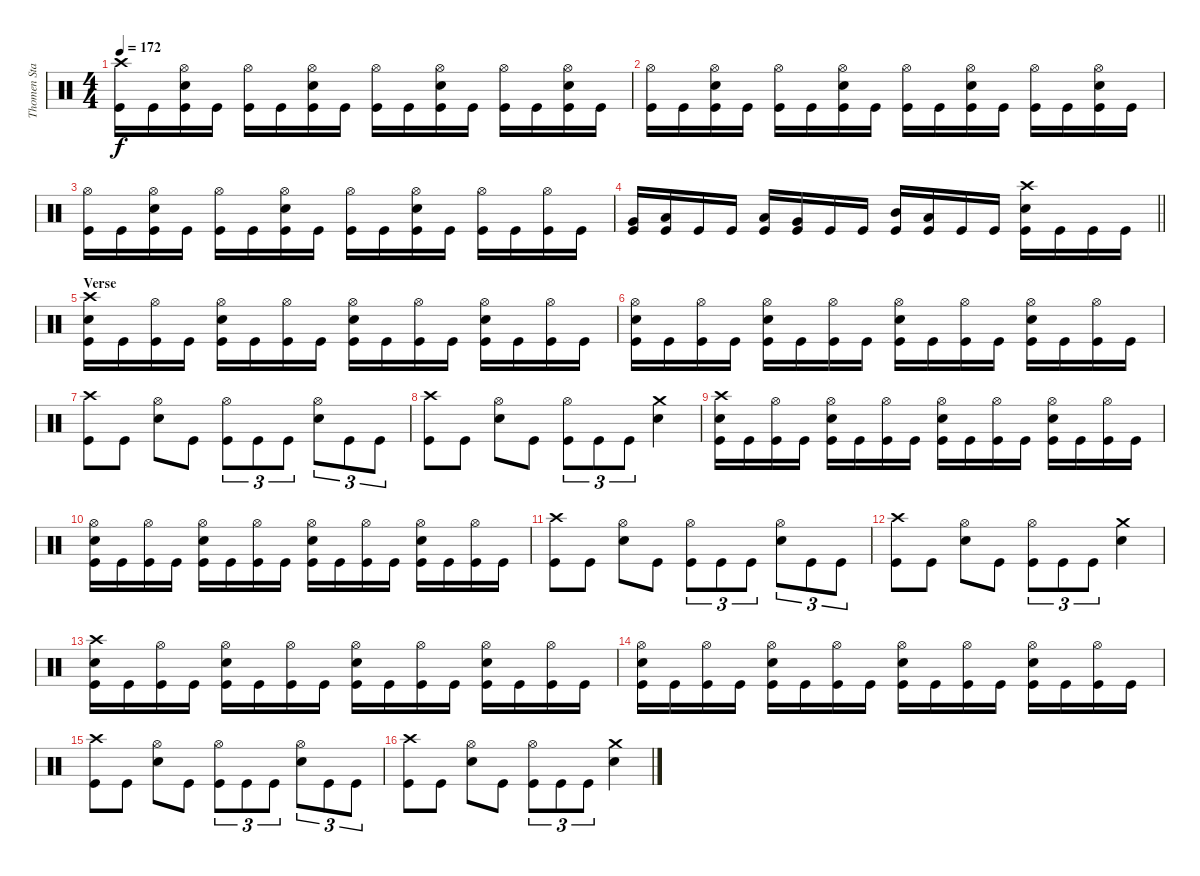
\track ("Thomen Stauch" "Thomen Sta") {instrument percussion}
\staff {score}
\articulation defaults
\ts (4 4)
\tempo 172
\clef neutral
\ks c
("Crash high (hit)" "Kick (hit)").16{dy f} "Kick (hit)".16 ("Hi-Hat (open)" "Snare (hit) 2" "Kick (hit)").16 "Kick (hit)".16 ("Hi-Hat (open)" "Kick (hit)").16 "Kick (hit)".16 ("Hi-Hat (open)" "Snare (hit) 2" "Kick (hit)").16 "Kick (hit)".16 ("Hi-Hat (open)" "Kick (hit)").16 "Kick (hit)".16 ("Hi-Hat (open)" "Snare (hit) 2" "Kick (hit)").16 "Kick (hit)".16 ("Hi-Hat (open)" "Kick (hit)").16 "Kick (hit)".16 ("Hi-Hat (open)" "Snare (hit) 2" "Kick (hit)").16 "Kick (hit)".16 |
("Hi-Hat (open)" "Kick (hit)").16 "Kick (hit)".16 ("Hi-Hat (open)" "Snare (hit) 2" "Kick (hit)").16 "Kick (hit)".16 ("Hi-Hat (open)" "Kick (hit)").16 "Kick (hit)".16 ("Hi-Hat (open)" "Snare (hit) 2" "Kick (hit)").16 "Kick (hit)".16 ("Hi-Hat (open)" "Kick (hit)").16 "Kick (hit)".16 ("Hi-Hat (open)" "Snare (hit) 2" "Kick (hit)").16 "Kick (hit)".16 ("Hi-Hat (open)" "Kick (hit)").16 "Kick (hit)".16 ("Hi-Hat (open)" "Snare (hit) 2" "Kick (hit)").16 "Kick (hit)".16 |
("Hi-Hat (open)" "Kick (hit)").16 "Kick (hit)".16 ("Hi-Hat (open)" "Snare (hit) 2" "Kick (hit)").16 "Kick (hit)".16 ("Hi-Hat (open)" "Kick (hit)").16 "Kick (hit)".16 ("Hi-Hat (open)" "Snare (hit) 2" "Kick (hit)").16 "Kick (hit)".16 ("Hi-Hat (open)" "Kick (hit)").16 "Kick (hit)".16 ("Hi-Hat (open)" "Snare (hit) 2" "Kick (hit)").16 "Kick (hit)".16 ("Hi-Hat (open)" "Kick (hit)").16 "Kick (hit)".16 ("Hi-Hat (open)" "Kick (hit)").16 "Kick (hit)".16 |
\barLineRight lightlight
("Very Low Tom (hit)" "Kick (hit)").16 ("Low Floor Tom (hit)" "Kick (hit)").16 "Kick (hit)".16 "Kick (hit)".16 ("Low Tom (hit)" "Kick (hit)").16 ("Very Low Tom (hit)" "Kick (hit)").16 "Kick (hit)".16 "Kick (hit)".16 ("Mid Tom (hit)" "Kick (hit)").16 ("Low Tom (hit)" "Kick (hit)").16 "Kick (hit)".16 "Kick (hit)".16 ("Crash high (hit)" "Snare (hit) 2" "Kick (hit)").16 "Kick (hit)".16 "Kick (hit)".16 "Kick (hit)".16 |
\section ("" "Verse")
("Crash high (hit)" "Snare (hit) 2" "Kick (hit)").16 "Kick (hit)".16 ("Hi-Hat (open)" "Kick (hit)").16 "Kick (hit)".16 ("Hi-Hat (open)" "Snare (hit) 2" "Kick (hit)").16 "Kick (hit)".16 ("Hi-Hat (open)" "Kick (hit)").16 "Kick (hit)".16 ("Hi-Hat (open)" "Snare (hit) 2" "Kick (hit)").16 "Kick (hit)".16 ("Hi-Hat (open)" "Kick (hit)").16 "Kick (hit)".16 ("Hi-Hat (open)" "Snare (hit) 2" "Kick (hit)").16 "Kick (hit)".16 ("Hi-Hat (open)" "Kick (hit)").16 "Kick (hit)".16 |
("Hi-Hat (open)" "Snare (hit) 2" "Kick (hit)").16 "Kick (hit)".16 ("Hi-Hat (open)" "Kick (hit)").16 "Kick (hit)".16 ("Hi-Hat (open)" "Snare (hit) 2" "Kick (hit)").16 "Kick (hit)".16 ("Hi-Hat (open)" "Kick (hit)").16 "Kick (hit)".16 ("Hi-Hat (open)" "Snare (hit) 2" "Kick (hit)").16 "Kick (hit)".16 ("Hi-Hat (open)" "Kick (hit)").16 "Kick (hit)".16 ("Hi-Hat (open)" "Snare (hit) 2" "Kick (hit)").16 "Kick (hit)".16 ("Hi-Hat (open)" "Kick (hit)").16 "Kick (hit)".16 |
("Crash high (hit)" "Kick (hit)").8 "Kick (hit)".8 ("Hi-Hat (open)" "Snare (hit) 2").8 "Kick (hit)".8 ("Hi-Hat (open)" "Kick (hit)").8{tu (3 2)} "Kick (hit)".8{tu (3 2)} "Kick (hit)".8{tu (3 2)} ("Hi-Hat (open)" "Snare (hit) 2").8{tu (3 2)} "Kick (hit)".8{tu (3 2)} "Kick (hit)".8{tu (3 2)} |
("Crash high (hit)" "Kick (hit)").8 "Kick (hit)".8 ("Hi-Hat (open)" "Snare (hit) 2").8 "Kick (hit)".8 ("Hi-Hat (open)" "Kick (hit)").8{tu (3 2)} "Kick (hit)".8{tu (3 2)} "Kick (hit)".8{tu (3 2)} ("Crash medium (hit)" "Snare (hit) 2").4 |
("Crash high (hit)" "Snare (hit) 2" "Kick (hit)").16 "Kick (hit)".16 ("Hi-Hat (open)" "Kick (hit)").16 "Kick (hit)".16 ("Hi-Hat (open)" "Snare (hit) 2" "Kick (hit)").16 "Kick (hit)".16 ("Hi-Hat (open)" "Kick (hit)").16 "Kick (hit)".16 ("Hi-Hat (open)" "Snare (hit) 2" "Kick (hit)").16 "Kick (hit)".16 ("Hi-Hat (open)" "Kick (hit)").16 "Kick (hit)".16 ("Hi-Hat (open)" "Snare (hit) 2" "Kick (hit)").16 "Kick (hit)".16 ("Hi-Hat (open)" "Kick (hit)").16 "Kick (hit)".16 |
("Hi-Hat (open)" "Snare (hit) 2" "Kick (hit)").16 "Kick (hit)".16 ("Hi-Hat (open)" "Kick (hit)").16 "Kick (hit)".16 ("Hi-Hat (open)" "Snare (hit) 2" "Kick (hit)").16 "Kick (hit)".16 ("Hi-Hat (open)" "Kick (hit)").16 "Kick (hit)".16 ("Hi-Hat (open)" "Snare (hit) 2" "Kick (hit)").16 "Kick (hit)".16 ("Hi-Hat (open)" "Kick (hit)").16 "Kick (hit)".16 ("Hi-Hat (open)" "Snare (hit) 2" "Kick (hit)").16 "Kick (hit)".16 ("Hi-Hat (open)" "Kick (hit)").16 "Kick (hit)".16 |
("Crash high (hit)" "Kick (hit)").8 "Kick (hit)".8 ("Hi-Hat (open)" "Snare (hit) 2").8 "Kick (hit)".8 ("Hi-Hat (open)" "Kick (hit)").8{tu (3 2)} "Kick (hit)".8{tu (3 2)} "Kick (hit)".8{tu (3 2)} ("Hi-Hat (open)" "Snare (hit) 2").8{tu (3 2)} "Kick (hit)".8{tu (3 2)} "Kick (hit)".8{tu (3 2)} |
("Crash high (hit)" "Kick (hit)").8 "Kick (hit)".8 ("Hi-Hat (open)" "Snare (hit) 2").8 "Kick (hit)".8 ("Hi-Hat (open)" "Kick (hit)").8{tu (3 2)} "Kick (hit)".8{tu (3 2)} "Kick (hit)".8{tu (3 2)} ("Crash medium (hit)" "Snare (hit) 2").4 |
("Crash high (hit)" "Snare (hit) 2" "Kick (hit)").16 "Kick (hit)".16 ("Hi-Hat (open)" "Kick (hit)").16 "Kick (hit)".16 ("Hi-Hat (open)" "Snare (hit) 2" "Kick (hit)").16 "Kick (hit)".16 ("Hi-Hat (open)" "Kick (hit)").16 "Kick (hit)".16 ("Hi-Hat (open)" "Snare (hit) 2" "Kick (hit)").16 "Kick (hit)".16 ("Hi-Hat (open)" "Kick (hit)").16 "Kick (hit)".16 ("Hi-Hat (open)" "Snare (hit) 2" "Kick (hit)").16 "Kick (hit)".16 ("Hi-Hat (open)" "Kick (hit)").16 "Kick (hit)".16 |
("Hi-Hat (open)" "Snare (hit) 2" "Kick (hit)").16 "Kick (hit)".16 ("Hi-Hat (open)" "Kick (hit)").16 "Kick (hit)".16 ("Hi-Hat (open)" "Snare (hit) 2" "Kick (hit)").16 "Kick (hit)".16 ("Hi-Hat (open)" "Kick (hit)").16 "Kick (hit)".16 ("Hi-Hat (open)" "Snare (hit) 2" "Kick (hit)").16 "Kick (hit)".16 ("Hi-Hat (open)" "Kick (hit)").16 "Kick (hit)".16 ("Hi-Hat (open)" "Snare (hit) 2" "Kick (hit)").16 "Kick (hit)".16 ("Hi-Hat (open)" "Kick (hit)").16 "Kick (hit)".16 |
("Crash high (hit)" "Kick (hit)").8 "Kick (hit)".8 ("Hi-Hat (open)" "Snare (hit) 2").8 "Kick (hit)".8 ("Hi-Hat (open)" "Kick (hit)").8{tu (3 2)} "Kick (hit)".8{tu (3 2)} "Kick (hit)".8{tu (3 2)} ("Hi-Hat (open)" "Snare (hit) 2").8{tu (3 2)} "Kick (hit)".8{tu (3 2)} "Kick (hit)".8{tu (3 2)} |
("Crash high (hit)" "Kick (hit)").8 "Kick (hit)".8 ("Hi-Hat (open)" "Snare (hit) 2").8 "Kick (hit)".8 ("Hi-Hat (open)" "Kick (hit)").8{tu (3 2)} "Kick (hit)".8{tu (3 2)} "Kick (hit)".8{tu (3 2)} ("Crash medium (hit)" "Snare (hit) 2").4
